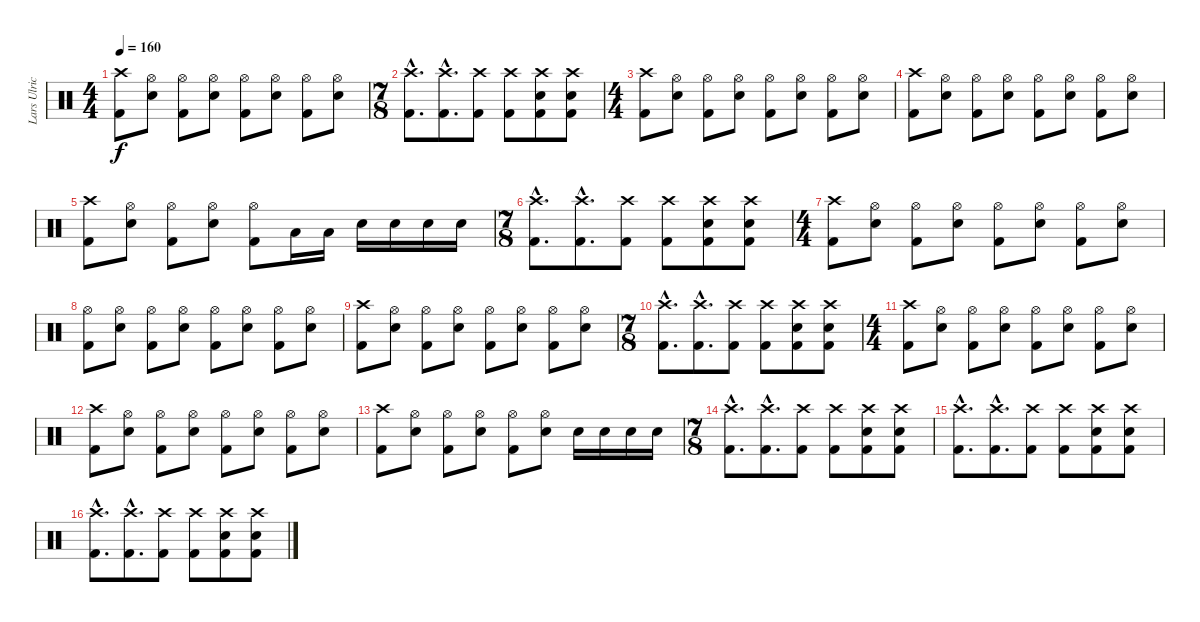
\track ("Lars Ulrich (Drums)" "Lars Ulric") {instrument percussion}
\staff {score}
\articulation defaults
\ts (4 4)
\tempo 160
\clef neutral
\ks c
("Crash high (hit)" "Kick (hit) 2").8{dy f} ("Hi-Hat (open)" "Electric Snare (hit)").8 ("Hi-Hat (open)" "Kick (hit) 2").8 ("Hi-Hat (open)" "Electric Snare (hit)").8 ("Hi-Hat (open)" "Kick (hit) 2").8 ("Hi-Hat (open)" "Electric Snare (hit)").8 ("Hi-Hat (open)" "Kick (hit) 2").8 ("Hi-Hat (open)" "Electric Snare (hit)").8 |
\ts (7 8)
("Crash high (hit)"{hac} "Kick (hit) 2"{hac}).8{d} ("Crash high (hit)"{hac} "Kick (hit) 2"{hac}).8{d} ("Crash high (hit)" "Kick (hit) 2").8 ("Crash high (hit)" "Kick (hit) 2").8 ("Crash high (hit)" "Electric Snare (hit)" "Kick (hit) 2").8 ("Crash high (hit)" "Electric Snare (hit)" "Kick (hit) 2").8 |
\ts (4 4)
("Crash high (hit)" "Kick (hit) 2").8 ("Hi-Hat (open)" "Electric Snare (hit)").8 ("Hi-Hat (open)" "Kick (hit) 2").8 ("Hi-Hat (open)" "Electric Snare (hit)").8 ("Hi-Hat (open)" "Kick (hit) 2").8 ("Hi-Hat (open)" "Electric Snare (hit)").8 ("Hi-Hat (open)" "Kick (hit) 2").8 ("Hi-Hat (open)" "Electric Snare (hit)").8 |
("Crash high (hit)" "Kick (hit) 2").8 ("Hi-Hat (open)" "Electric Snare (hit)").8 ("Hi-Hat (open)" "Kick (hit) 2").8 ("Hi-Hat (open)" "Electric Snare (hit)").8 ("Hi-Hat (open)" "Kick (hit) 2").8 ("Hi-Hat (open)" "Electric Snare (hit)").8 ("Hi-Hat (open)" "Kick (hit) 2").8 ("Hi-Hat (open)" "Electric Snare (hit)").8 |
("Crash high (hit)" "Kick (hit) 2").8 ("Hi-Hat (open)" "Electric Snare (hit)").8 ("Hi-Hat (open)" "Kick (hit) 2").8 ("Hi-Hat (open)" "Electric Snare (hit)").8 ("Hi-Hat (open)" "Kick (hit) 2").8 "Low Tom (hit)".16 "Low Tom (hit)".16 "Electric Snare (hit)".16 "Electric Snare (hit)".16 "Electric Snare (hit)".16 "Electric Snare (hit)".16 |
\ts (7 8)
("Crash high (hit)"{hac} "Kick (hit) 2"{hac}).8{d} ("Crash high (hit)"{hac} "Kick (hit) 2"{hac}).8{d} ("Crash high (hit)" "Kick (hit) 2").8 ("Crash high (hit)" "Kick (hit) 2").8 ("Crash high (hit)" "Electric Snare (hit)" "Kick (hit) 2").8 ("Crash high (hit)" "Electric Snare (hit)" "Kick (hit) 2").8 |
\ts (4 4)
("Crash high (hit)" "Kick (hit) 2").8 ("Hi-Hat (open)" "Electric Snare (hit)").8 ("Hi-Hat (open)" "Kick (hit) 2").8 ("Hi-Hat (open)" "Electric Snare (hit)").8 ("Hi-Hat (open)" "Kick (hit) 2").8 ("Hi-Hat (open)" "Electric Snare (hit)").8 ("Hi-Hat (open)" "Kick (hit) 2").8 ("Hi-Hat (open)" "Electric Snare (hit)").8 |
("Hi-Hat (open)" "Kick (hit) 2").8 ("Hi-Hat (open)" "Electric Snare (hit)").8 ("Hi-Hat (open)" "Kick (hit) 2").8 ("Hi-Hat (open)" "Electric Snare (hit)").8 ("Hi-Hat (open)" "Kick (hit) 2").8 ("Hi-Hat (open)" "Electric Snare (hit)").8 ("Hi-Hat (open)" "Kick (hit) 2").8 ("Hi-Hat (open)" "Electric Snare (hit)").8 |
("Crash high (hit)" "Kick (hit) 2").8 ("Hi-Hat (open)" "Electric Snare (hit)").8 ("Hi-Hat (open)" "Kick (hit) 2").8 ("Hi-Hat (open)" "Electric Snare (hit)").8 ("Hi-Hat (open)" "Kick (hit) 2").8 ("Hi-Hat (open)" "Electric Snare (hit)").8 ("Hi-Hat (open)" "Kick (hit) 2").8 ("Hi-Hat (open)" "Electric Snare (hit)").8 |
\ts (7 8)
("Crash high (hit)"{hac} "Kick (hit) 2"{hac}).8{d} ("Crash high (hit)"{hac} "Kick (hit) 2"{hac}).8{d} ("Crash high (hit)" "Kick (hit) 2").8 ("Crash high (hit)" "Kick (hit) 2").8 ("Crash high (hit)" "Electric Snare (hit)" "Kick (hit) 2").8 ("Crash high (hit)" "Electric Snare (hit)" "Kick (hit) 2").8 |
\ts (4 4)
("Crash high (hit)" "Kick (hit) 2").8 ("Hi-Hat (open)" "Electric Snare (hit)").8 ("Hi-Hat (open)" "Kick (hit) 2").8 ("Hi-Hat (open)" "Electric Snare (hit)").8 ("Hi-Hat (open)" "Kick (hit) 2").8 ("Hi-Hat (open)" "Electric Snare (hit)").8 ("Hi-Hat (open)" "Kick (hit) 2").8 ("Hi-Hat (open)" "Electric Snare (hit)").8 |
("Crash high (hit)" "Kick (hit) 2").8 ("Hi-Hat (open)" "Electric Snare (hit)").8 ("Hi-Hat (open)" "Kick (hit) 2").8 ("Hi-Hat (open)" "Electric Snare (hit)").8 ("Hi-Hat (open)" "Kick (hit) 2").8 ("Hi-Hat (open)" "Electric Snare (hit)").8 ("Hi-Hat (open)" "Kick (hit) 2").8 ("Hi-Hat (open)" "Electric Snare (hit)").8 |
("Crash high (hit)" "Kick (hit) 2").8 ("Hi-Hat (open)" "Electric Snare (hit)").8 ("Hi-Hat (open)" "Kick (hit) 2").8 ("Hi-Hat (open)" "Electric Snare (hit)").8 ("Hi-Hat (open)" "Kick (hit) 2").8 ("Hi-Hat (open)" "Electric Snare (hit)").8 "Electric Snare (hit)".16 "Electric Snare (hit)".16 "Electric Snare (hit)".16 "Electric Snare (hit)".16 |
\ts (7 8)
("Crash high (hit)"{hac} "Kick (hit) 2"{hac}).8{d} ("Crash high (hit)"{hac} "Kick (hit) 2"{hac}).8{d} ("Crash high (hit)" "Kick (hit) 2").8 ("Crash high (hit)" "Kick (hit) 2").8 ("Crash high (hit)" "Electric Snare (hit)" "Kick (hit) 2").8 ("Crash high (hit)" "Electric Snare (hit)" "Kick (hit) 2").8 |
("Crash high (hit)"{hac} "Kick (hit) 2"{hac}).8{d} ("Crash high (hit)"{hac} "Kick (hit) 2"{hac}).8{d} ("Crash high (hit)" "Kick (hit) 2").8 ("Crash high (hit)" "Kick (hit) 2").8 ("Crash high (hit)" "Electric Snare (hit)" "Kick (hit) 2").8 ("Crash high (hit)" "Electric Snare (hit)" "Kick (hit) 2").8 |
("Crash high (hit)"{hac} "Kick (hit) 2"{hac}).8{d} ("Crash high (hit)"{hac} "Kick (hit) 2"{hac}).8{d} ("Crash high (hit)" "Kick (hit) 2").8 ("Crash high (hit)" "Kick (hit) 2").8 ("Crash high (hit)" "Electric Snare (hit)" "Kick (hit) 2").8 ("Crash high (hit)" "Electric Snare (hit)" "Kick (hit) 2").8
